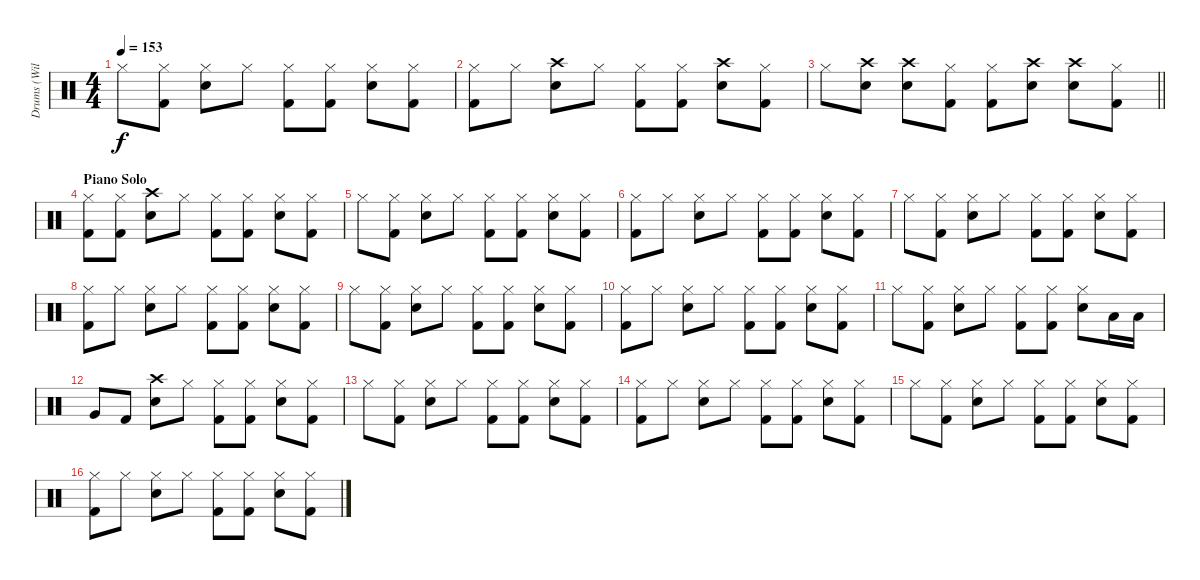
\track ("Drums (Williams)" "Drums (Wil") {instrument percussion}
\staff {score}
\articulation defaults
\ts (4 4)
\tempo 153
\clef neutral
\ks c "Hi-Hat (closed)".8{dy f}
("Hi-Hat (closed)" "Kick (hit) 2").8 ("Hi-Hat (closed)" "Electric Snare (hit)").8 "Hi-Hat (closed)".8 ("Hi-Hat (closed)" "Kick (hit) 2").8 ("Hi-Hat (closed)" "Kick (hit) 2").8 ("Hi-Hat (closed)" "Electric Snare (hit)").8 ("Hi-Hat (closed)" "Kick (hit) 2").8 |
("Hi-Hat (closed)" "Kick (hit) 2").8 "Hi-Hat (closed)".8 ("Crash high (hit)" "Electric Snare (hit)").8 "Hi-Hat (closed)".8 ("Hi-Hat (closed)" "Kick (hit) 2").8 ("Hi-Hat (closed)" "Kick (hit) 2").8 ("Crash high (hit)" "Electric Snare (hit)").8 ("Hi-Hat (closed)" "Kick (hit) 2").8 |
\barLineRight lightlight "Hi-Hat (closed)".8
("Crash high (hit)" "Electric Snare (hit)").8 ("Crash high (hit)" "Electric Snare (hit)").8 ("Hi-Hat (closed)" "Kick (hit) 2").8 ("Hi-Hat (closed)" "Kick (hit) 2").8 ("Crash high (hit)" "Electric Snare (hit)").8 ("Crash high (hit)" "Electric Snare (hit)").8 ("Hi-Hat (closed)" "Kick (hit) 2").8 |
\section ("" "Piano Solo")
("Hi-Hat (closed)" "Kick (hit) 2").8 ("Hi-Hat (closed)" "Kick (hit) 2").8 ("Crash high (hit)" "Electric Snare (hit)").8 "Hi-Hat (closed)".8 ("Hi-Hat (closed)" "Kick (hit) 2").8 ("Hi-Hat (closed)" "Kick (hit) 2").8 ("Hi-Hat (closed)" "Electric Snare (hit)").8 ("Hi-Hat (closed)" "Kick (hit) 2").8 |
"Hi-Hat (closed)".8 ("Hi-Hat (closed)" "Kick (hit) 2").8 ("Hi-Hat (closed)" "Electric Snare (hit)").8 "Hi-Hat (closed)".8 ("Hi-Hat (closed)" "Kick (hit) 2").8 ("Hi-Hat (closed)" "Kick (hit) 2").8 ("Hi-Hat (closed)" "Electric Snare (hit)").8 ("Hi-Hat (closed)" "Kick (hit) 2").8 |
("Hi-Hat (closed)" "Kick (hit) 2").8 "Hi-Hat (closed)".8 ("Hi-Hat (closed)" "Electric Snare (hit)").8 "Hi-Hat (closed)".8 ("Hi-Hat (closed)" "Kick (hit) 2").8 ("Hi-Hat (closed)" "Kick (hit) 2").8 ("Hi-Hat (closed)" "Electric Snare (hit)").8 ("Hi-Hat (closed)" "Kick (hit) 2").8 |
"Hi-Hat (closed)".8 ("Hi-Hat (closed)" "Kick (hit) 2").8 ("Hi-Hat (closed)" "Electric Snare (hit)").8 "Hi-Hat (closed)".8 ("Hi-Hat (closed)" "Kick (hit) 2").8 ("Hi-Hat (closed)" "Kick (hit) 2").8 ("Hi-Hat (closed)" "Electric Snare (hit)").8 ("Hi-Hat (closed)" "Kick (hit) 2").8 |
("Hi-Hat (closed)" "Kick (hit) 2").8 "Hi-Hat (closed)".8 ("Hi-Hat (closed)" "Electric Snare (hit)").8 "Hi-Hat (closed)".8 ("Hi-Hat (closed)" "Kick (hit) 2").8 ("Hi-Hat (closed)" "Kick (hit) 2").8 ("Hi-Hat (closed)" "Electric Snare (hit)").8 ("Hi-Hat (closed)" "Kick (hit) 2").8 |
"Hi-Hat (closed)".8 ("Hi-Hat (closed)" "Kick (hit) 2").8 ("Hi-Hat (closed)" "Electric Snare (hit)").8 "Hi-Hat (closed)".8 ("Hi-Hat (closed)" "Kick (hit) 2").8 ("Hi-Hat (closed)" "Kick (hit) 2").8 ("Hi-Hat (closed)" "Electric Snare (hit)").8 ("Hi-Hat (closed)" "Kick (hit) 2").8 |
("Hi-Hat (closed)" "Kick (hit) 2").8 "Hi-Hat (closed)".8 ("Hi-Hat (closed)" "Electric Snare (hit)").8 "Hi-Hat (closed)".8 ("Hi-Hat (closed)" "Kick (hit) 2").8 ("Hi-Hat (closed)" "Kick (hit) 2").8 ("Hi-Hat (closed)" "Electric Snare (hit)").8 ("Hi-Hat (closed)" "Kick (hit) 2").8 |
"Hi-Hat (closed)".8 ("Hi-Hat (closed)" "Kick (hit) 2").8 ("Hi-Hat (closed)" "Electric Snare (hit)").8 "Hi-Hat (closed)".8 ("Hi-Hat (closed)" "Kick (hit) 2").8 ("Hi-Hat (closed)" "Kick (hit) 2").8 ("Hi-Hat (closed)" "Electric Snare (hit)").8 "Low Tom (hit)".16 "Low Tom (hit)".16 |
"Very Low Tom (hit)".8 "Kick (hit) 2".8 ("Crash high (hit)" "Electric Snare (hit)").8 "Hi-Hat (closed)".8 ("Hi-Hat (closed)" "Kick (hit) 2").8 ("Hi-Hat (closed)" "Kick (hit) 2").8 ("Hi-Hat (closed)" "Electric Snare (hit)").8 ("Hi-Hat (closed)" "Kick (hit) 2").8 |
"Hi-Hat (closed)".8 ("Hi-Hat (closed)" "Kick (hit) 2").8 ("Hi-Hat (closed)" "Electric Snare (hit)").8 "Hi-Hat (closed)".8 ("Hi-Hat (closed)" "Kick (hit) 2").8 ("Hi-Hat (closed)" "Kick (hit) 2").8 ("Hi-Hat (closed)" "Electric Snare (hit)").8 ("Hi-Hat (closed)" "Kick (hit) 2").8 |
("Hi-Hat (closed)" "Kick (hit) 2").8 "Hi-Hat (closed)".8 ("Hi-Hat (closed)" "Electric Snare (hit)").8 "Hi-Hat (closed)".8 ("Hi-Hat (closed)" "Kick (hit) 2").8 ("Hi-Hat (closed)" "Kick (hit) 2").8 ("Hi-Hat (closed)" "Electric Snare (hit)").8 ("Hi-Hat (closed)" "Kick (hit) 2").8 |
"Hi-Hat (closed)".8 ("Hi-Hat (closed)" "Kick (hit) 2").8 ("Hi-Hat (closed)" "Electric Snare (hit)").8 "Hi-Hat (closed)".8 ("Hi-Hat (closed)" "Kick (hit) 2").8 ("Hi-Hat (closed)" "Kick (hit) 2").8 ("Hi-Hat (closed)" "Electric Snare (hit)").8 ("Hi-Hat (closed)" "Kick (hit) 2").8 |
("Hi-Hat (closed)" "Kick (hit) 2").8 "Hi-Hat (closed)".8 ("Hi-Hat (closed)" "Electric Snare (hit)").8 "Hi-Hat (closed)".8 ("Hi-Hat (closed)" "Kick (hit) 2").8 ("Hi-Hat (closed)" "Kick (hit) 2").8 ("Hi-Hat (closed)" "Electric Snare (hit)").8 ("Hi-Hat (closed)" "Kick (hit) 2").8
